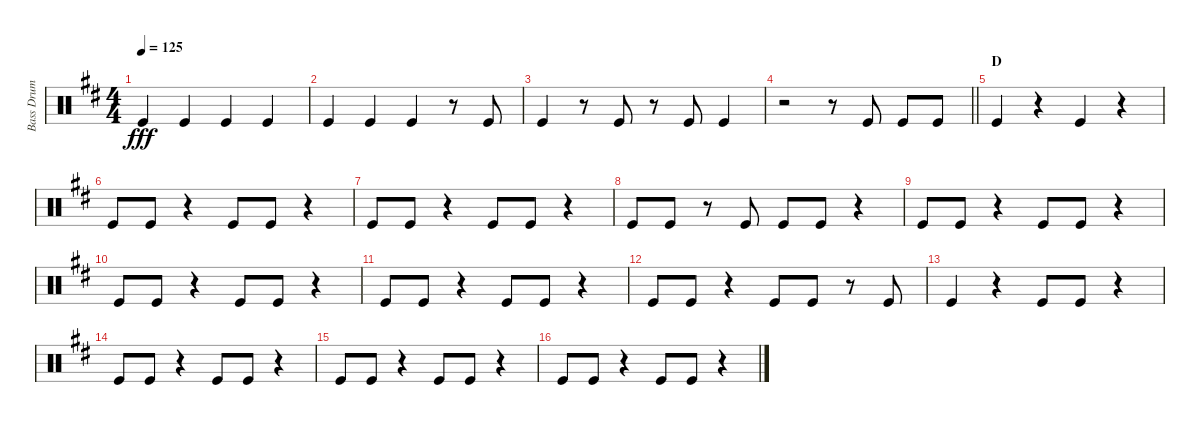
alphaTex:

\track ("Bass Drum" "Bass Drum") {instrument percussion}
\staff {score}
\articulation defaults
\ts (4 4)
\tempo 125
\clef neutral
\ks d "Kick (hit)".4{dy fff} "Kick (hit)".4 "Kick (hit)".4 "Kick (hit)".4
|
"Kick (hit)".4 "Kick (hit)".4 "Kick (hit)".4 r.8 "Kick (hit)".8 |
"Kick (hit)".4 r.8 "Kick (hit)".8 r.8 "Kick (hit)".8 "Kick (hit)".4 |
\barLineRight lightlight
r.2 r.8 "Kick (hit)".8 "Kick (hit)".8 "Kick (hit)".8 |
\section ("" "D")
"Kick (hit)".4 r.4 "Kick (hit)".4 r.4 |
"Kick (hit)".8 "Kick (hit)".8 r.4 "Kick (hit)".8 "Kick (hit)".8 r.4 |
"Kick (hit)".8 "Kick (hit)".8 r.4 "Kick (hit)".8 "Kick (hit)".8 r.4 |
"Kick (hit)".8 "Kick (hit)".8 r.8 "Kick (hit)".8 "Kick (hit)".8 "Kick (hit)".8 r.4 |
"Kick (hit)".8 "Kick (hit)".8 r.4 "Kick (hit)".8 "Kick (hit)".8 r.4 |
"Kick (hit)".8 "Kick (hit)".8 r.4 "Kick (hit)".8 "Kick (hit)".8 r.4 |
"Kick (hit)".8 "Kick (hit)".8 r.4 "Kick (hit)".8 "Kick (hit)".8 r.4 |
"Kick (hit)".8 "Kick (hit)".8 r.4 "Kick (hit)".8 "Kick (hit)".8 r.8 "Kick (hit)".8 |
"Kick (hit)".4 r.4 "Kick (hit)".8 "Kick (hit)".8 r.4 |
"Kick (hit)".8 "Kick (hit)".8 r.4 "Kick (hit)".8 "Kick (hit)".8 r.4 |
"Kick (hit)".8 "Kick (hit)".8 r.4 "Kick (hit)".8 "Kick (hit)".8 r.4 |
"Kick (hit)".8 "Kick (hit)".8 r.4 "Kick (hit)".8 "Kick (hit)".8 r.4
